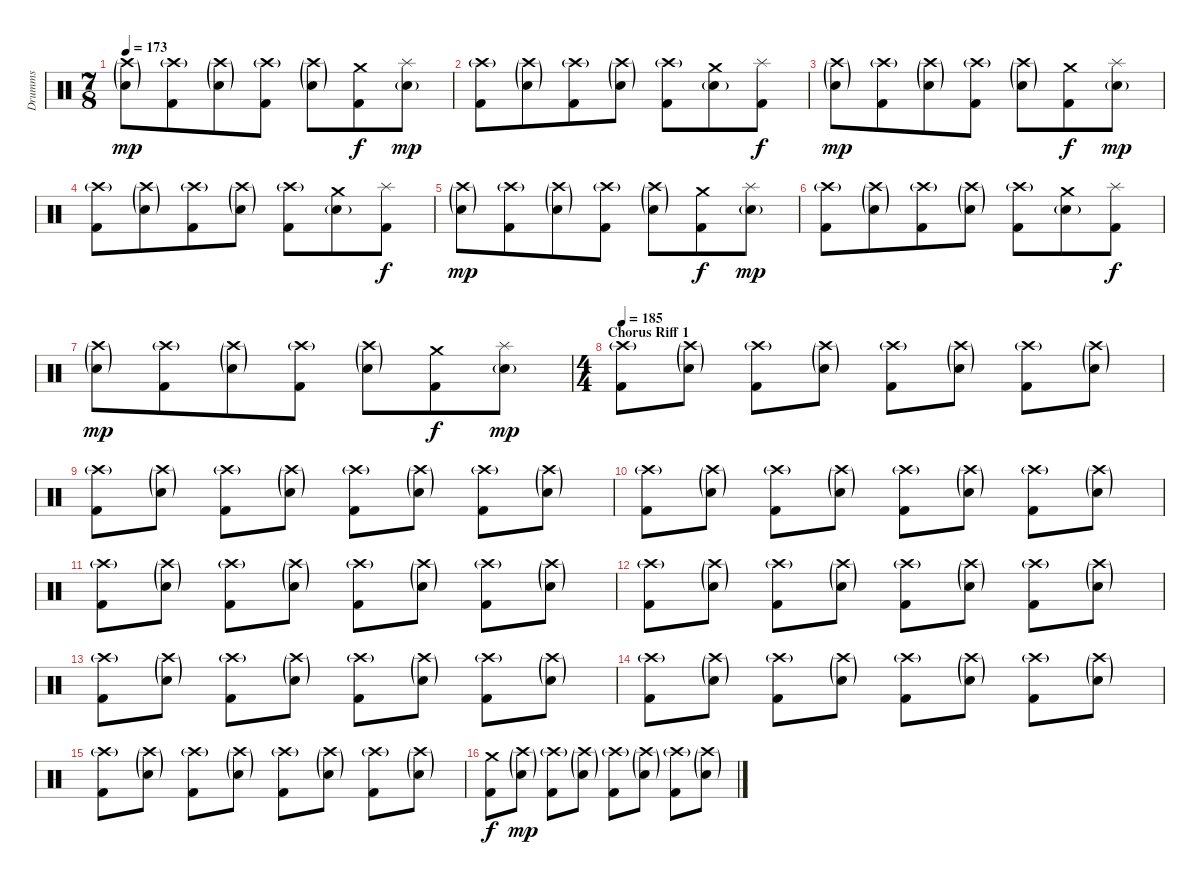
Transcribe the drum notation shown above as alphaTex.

\track ("Drumms" "Drumms") {instrument percussion}
\staff {score}
\articulation defaults
\ts (7 8)
\tempo 173
\clef neutral
\ks c
("Crash high (hit)"{g} "Snare (hit) 2"{g}).8{dy mp} ("Crash high (hit)"{g} "Kick (hit) 2").8 ("Crash high (hit)"{g} "Snare (hit) 2"{g}).8 ("Crash high (hit)"{g} "Kick (hit) 2").8 ("Crash high (hit)"{g} "Snare (hit) 2"{g}).8 ("Crash medium (hit)" "Kick (hit) 2").8{dy f} ("Splash (hit)" "Snare (hit) 2"{g}).8{dy mp} |
("Crash high (hit)"{g} "Kick (hit) 2").8 ("Crash high (hit)"{g} "Snare (hit) 2"{g}).8 ("Crash high (hit)"{g} "Kick (hit) 2").8 ("Crash high (hit)"{g} "Snare (hit) 2"{g}).8 ("Crash high (hit)"{g} "Kick (hit) 2").8 ("Crash medium (hit)" "Snare (hit) 2"{g}).8 ("Splash (hit)" "Kick (hit) 2").8{dy f} |
("Crash high (hit)"{g} "Snare (hit) 2"{g}).8{dy mp} ("Crash high (hit)"{g} "Kick (hit) 2").8 ("Crash high (hit)"{g} "Snare (hit) 2"{g}).8 ("Crash high (hit)"{g} "Kick (hit) 2").8 ("Crash high (hit)"{g} "Snare (hit) 2"{g}).8 ("Crash medium (hit)" "Kick (hit) 2").8{dy f} ("Splash (hit)" "Snare (hit) 2"{g}).8{dy mp} |
("Crash high (hit)"{g} "Kick (hit) 2").8 ("Crash high (hit)"{g} "Snare (hit) 2"{g}).8 ("Crash high (hit)"{g} "Kick (hit) 2").8 ("Crash high (hit)"{g} "Snare (hit) 2"{g}).8 ("Crash high (hit)"{g} "Kick (hit) 2").8 ("Crash medium (hit)" "Snare (hit) 2"{g}).8 ("Splash (hit)" "Kick (hit) 2").8{dy f} |
("Crash high (hit)"{g} "Snare (hit) 2"{g}).8{dy mp} ("Crash high (hit)"{g} "Kick (hit) 2").8 ("Crash high (hit)"{g} "Snare (hit) 2"{g}).8 ("Crash high (hit)"{g} "Kick (hit) 2").8 ("Crash high (hit)"{g} "Snare (hit) 2"{g}).8 ("Crash medium (hit)" "Kick (hit) 2").8{dy f} ("Splash (hit)" "Snare (hit) 2"{g}).8{dy mp} |
("Crash high (hit)"{g} "Kick (hit) 2").8 ("Crash high (hit)"{g} "Snare (hit) 2"{g}).8 ("Crash high (hit)"{g} "Kick (hit) 2").8 ("Crash high (hit)"{g} "Snare (hit) 2"{g}).8 ("Crash high (hit)"{g} "Kick (hit) 2").8 ("Crash medium (hit)" "Snare (hit) 2"{g}).8 ("Splash (hit)" "Kick (hit) 2").8{dy f} |
("Crash high (hit)"{g} "Snare (hit) 2"{g}).8{dy mp} ("Crash high (hit)"{g} "Kick (hit) 2").8 ("Crash high (hit)"{g} "Snare (hit) 2"{g}).8 ("Crash high (hit)"{g} "Kick (hit) 2").8 ("Crash high (hit)"{g} "Snare (hit) 2"{g}).8 ("Crash medium (hit)" "Kick (hit) 2").8{dy f} ("Splash (hit)" "Snare (hit) 2"{g}).8{dy mp} |
\ts (4 4)
\section ("" "Chorus Riff 1")
\tempo 185
("Crash high (hit)"{g} "Kick (hit) 2").8 ("Crash high (hit)"{g} "Snare (hit) 2"{g}).8 ("Crash high (hit)"{g} "Kick (hit) 2").8 ("Crash high (hit)"{g} "Snare (hit) 2"{g}).8 ("Crash high (hit)"{g} "Kick (hit) 2").8 ("Crash high (hit)"{g} "Snare (hit) 2"{g}).8 ("Crash high (hit)"{g} "Kick (hit) 2").8 ("Crash high (hit)"{g} "Snare (hit) 2"{g}).8 |
("Crash high (hit)"{g} "Kick (hit) 2").8 ("Crash high (hit)"{g} "Snare (hit) 2"{g}).8 ("Crash high (hit)"{g} "Kick (hit) 2").8 ("Crash high (hit)"{g} "Snare (hit) 2"{g}).8 ("Crash high (hit)"{g} "Kick (hit) 2").8 ("Crash high (hit)"{g} "Snare (hit) 2"{g}).8 ("Crash high (hit)"{g} "Kick (hit) 2").8 ("Crash high (hit)"{g} "Snare (hit) 2"{g}).8 |
("Crash high (hit)"{g} "Kick (hit) 2").8 ("Crash high (hit)"{g} "Snare (hit) 2"{g}).8 ("Crash high (hit)"{g} "Kick (hit) 2").8 ("Crash high (hit)"{g} "Snare (hit) 2"{g}).8 ("Crash high (hit)"{g} "Kick (hit) 2").8 ("Crash high (hit)"{g} "Snare (hit) 2"{g}).8 ("Crash high (hit)"{g} "Kick (hit) 2").8 ("Crash high (hit)"{g} "Snare (hit) 2"{g}).8 |
("Crash high (hit)"{g} "Kick (hit) 2").8 ("Crash high (hit)"{g} "Snare (hit) 2"{g}).8 ("Crash high (hit)"{g} "Kick (hit) 2").8 ("Crash high (hit)"{g} "Snare (hit) 2"{g}).8 ("Crash high (hit)"{g} "Kick (hit) 2").8 ("Crash high (hit)"{g} "Snare (hit) 2"{g}).8 ("Crash high (hit)"{g} "Kick (hit) 2").8 ("Crash high (hit)"{g} "Snare (hit) 2"{g}).8 |
("Crash high (hit)"{g} "Kick (hit) 2").8 ("Crash high (hit)"{g} "Snare (hit) 2"{g}).8 ("Crash high (hit)"{g} "Kick (hit) 2").8 ("Crash high (hit)"{g} "Snare (hit) 2"{g}).8 ("Crash high (hit)"{g} "Kick (hit) 2").8 ("Crash high (hit)"{g} "Snare (hit) 2"{g}).8 ("Crash high (hit)"{g} "Kick (hit) 2").8 ("Crash high (hit)"{g} "Snare (hit) 2"{g}).8 |
("Crash high (hit)"{g} "Kick (hit) 2").8 ("Crash high (hit)"{g} "Snare (hit) 2"{g}).8 ("Crash high (hit)"{g} "Kick (hit) 2").8 ("Crash high (hit)"{g} "Snare (hit) 2"{g}).8 ("Crash high (hit)"{g} "Kick (hit) 2").8 ("Crash high (hit)"{g} "Snare (hit) 2"{g}).8 ("Crash high (hit)"{g} "Kick (hit) 2").8 ("Crash high (hit)"{g} "Snare (hit) 2"{g}).8 |
("Crash high (hit)"{g} "Kick (hit) 2").8 ("Crash high (hit)"{g} "Snare (hit) 2"{g}).8 ("Crash high (hit)"{g} "Kick (hit) 2").8 ("Crash high (hit)"{g} "Snare (hit) 2"{g}).8 ("Crash high (hit)"{g} "Kick (hit) 2").8 ("Crash high (hit)"{g} "Snare (hit) 2"{g}).8 ("Crash high (hit)"{g} "Kick (hit) 2").8 ("Crash high (hit)"{g} "Snare (hit) 2"{g}).8 |
("Crash high (hit)"{g} "Kick (hit) 2").8 ("Crash high (hit)"{g} "Snare (hit) 2"{g}).8 ("Crash high (hit)"{g} "Kick (hit) 2").8 ("Crash high (hit)"{g} "Snare (hit) 2"{g}).8 ("Crash high (hit)"{g} "Kick (hit) 2").8 ("Crash high (hit)"{g} "Snare (hit) 2"{g}).8 ("Crash high (hit)"{g} "Kick (hit) 2").8 ("Crash high (hit)"{g} "Snare (hit) 2"{g}).8 |
("Crash medium (hit)" "Kick (hit) 2").8{dy f} ("Crash high (hit)"{g} "Snare (hit) 2"{g}).8{dy mp} ("Crash high (hit)"{g} "Kick (hit) 2").8 ("Crash high (hit)"{g} "Snare (hit) 2"{g}).8 ("Crash high (hit)"{g} "Kick (hit) 2").8 ("Crash high (hit)"{g} "Snare (hit) 2"{g}).8 ("Crash high (hit)"{g} "Kick (hit) 2").8 ("Crash high (hit)"{g} "Snare (hit) 2"{g}).8
